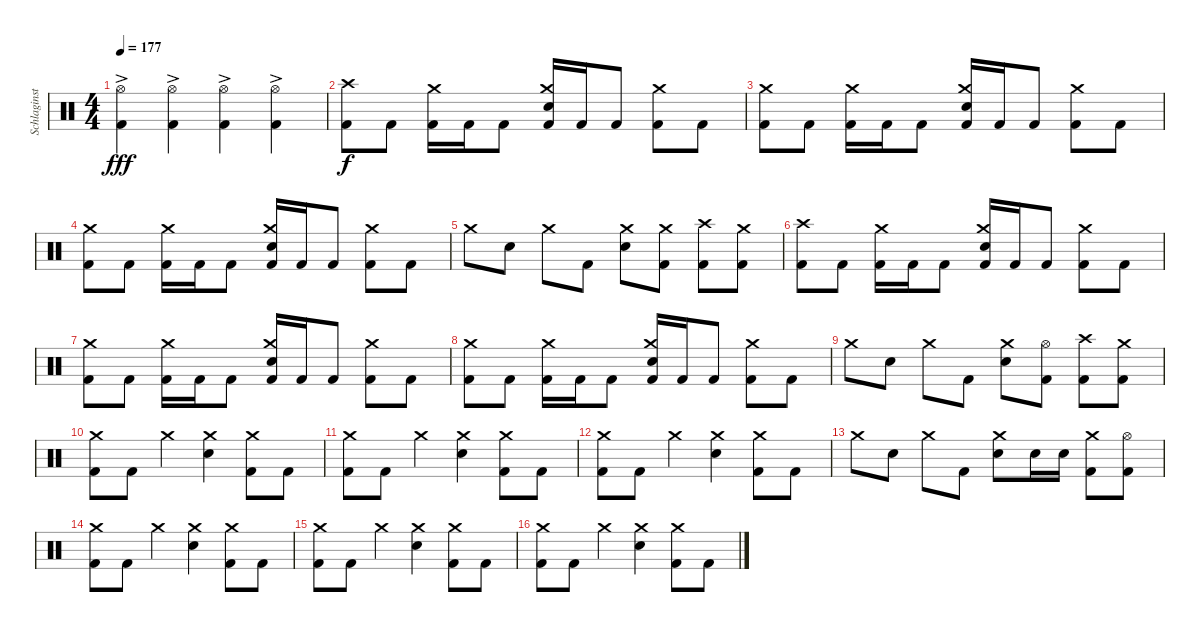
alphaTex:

\track ("Schlaginstrumente - Auswahl" "Schlaginst") {instrument percussion}
\staff {score}
\articulation defaults
\ts (4 4)
\tempo 177
\clef neutral
\ks c
("Hi-Hat (open)"{ac} "Kick (hit) 2"{ac}).4{dy fff} ("Hi-Hat (open)"{ac} "Kick (hit) 2"{ac}).4 ("Hi-Hat (open)"{ac} "Kick (hit) 2"{ac}).4 ("Hi-Hat (open)"{ac} "Kick (hit) 2"{ac}).4 |
("Crash high (hit)" "Kick (hit) 2").8{dy f} "Kick (hit) 2".8 ("Crash medium (hit)" "Kick (hit) 2").16 "Kick (hit) 2".16 "Kick (hit) 2".8 ("Crash medium (hit)" "Snare (hit) 2" "Kick (hit) 2").16 "Kick (hit) 2".16 "Kick (hit) 2".8 ("Crash medium (hit)" "Kick (hit) 2").8 "Kick (hit) 2".8 |
("Crash medium (hit)" "Kick (hit) 2").8 "Kick (hit) 2".8 ("Crash medium (hit)" "Kick (hit) 2").16 "Kick (hit) 2".16 "Kick (hit) 2".8 ("Crash medium (hit)" "Snare (hit) 2" "Kick (hit) 2").16 "Kick (hit) 2".16 "Kick (hit) 2".8 ("Crash medium (hit)" "Kick (hit) 2").8 "Kick (hit) 2".8 |
("Crash medium (hit)" "Kick (hit) 2").8 "Kick (hit) 2".8 ("Crash medium (hit)" "Kick (hit) 2").16 "Kick (hit) 2".16 "Kick (hit) 2".8 ("Crash medium (hit)" "Snare (hit) 2" "Kick (hit) 2").16 "Kick (hit) 2".16 "Kick (hit) 2".8 ("Crash medium (hit)" "Kick (hit) 2").8 "Kick (hit) 2".8 |
"Crash medium (hit)".8 "Snare (hit) 2".8 "Crash medium (hit)".8 "Kick (hit) 2".8 ("Crash medium (hit)" "Snare (hit) 2").8 ("Crash medium (hit)" "Kick (hit) 2").8 ("Crash high (hit)" "Kick (hit) 2").8 ("Crash medium (hit)" "Kick (hit) 2").8 |
("Crash high (hit)" "Kick (hit) 2").8 "Kick (hit) 2".8 ("Crash medium (hit)" "Kick (hit) 2").16 "Kick (hit) 2".16 "Kick (hit) 2".8 ("Crash medium (hit)" "Snare (hit) 2" "Kick (hit) 2").16 "Kick (hit) 2".16 "Kick (hit) 2".8 ("Crash medium (hit)" "Kick (hit) 2").8 "Kick (hit) 2".8 |
("Crash medium (hit)" "Kick (hit) 2").8 "Kick (hit) 2".8 ("Crash medium (hit)" "Kick (hit) 2").16 "Kick (hit) 2".16 "Kick (hit) 2".8 ("Crash medium (hit)" "Snare (hit) 2" "Kick (hit) 2").16 "Kick (hit) 2".16 "Kick (hit) 2".8 ("Crash medium (hit)" "Kick (hit) 2").8 "Kick (hit) 2".8 |
("Crash medium (hit)" "Kick (hit) 2").8 "Kick (hit) 2".8 ("Crash medium (hit)" "Kick (hit) 2").16 "Kick (hit) 2".16 "Kick (hit) 2".8 ("Crash medium (hit)" "Snare (hit) 2" "Kick (hit) 2").16 "Kick (hit) 2".16 "Kick (hit) 2".8 ("Crash medium (hit)" "Kick (hit) 2").8 "Kick (hit) 2".8 |
"Crash medium (hit)".8 "Snare (hit) 2".8 "Crash medium (hit)".8 "Kick (hit) 2".8 ("Crash medium (hit)" "Snare (hit) 2").8 ("Hi-Hat (open)" "Kick (hit) 2").8 ("Crash high (hit)" "Kick (hit) 2").8 ("Crash medium (hit)" "Kick (hit) 2").8 |
("Crash medium (hit)" "Kick (hit) 2").8 "Kick (hit) 2".8 "Crash medium (hit)".4 ("Crash medium (hit)" "Snare (hit) 2").4 ("Crash medium (hit)" "Kick (hit) 2").8 "Kick (hit) 2".8 |
("Crash medium (hit)" "Kick (hit) 2").8 "Kick (hit) 2".8 "Crash medium (hit)".4 ("Crash medium (hit)" "Snare (hit) 2").4 ("Crash medium (hit)" "Kick (hit) 2").8 "Kick (hit) 2".8 |
("Crash medium (hit)" "Kick (hit) 2").8 "Kick (hit) 2".8 "Crash medium (hit)".4 ("Crash medium (hit)" "Snare (hit) 2").4 ("Crash medium (hit)" "Kick (hit) 2").8 "Kick (hit) 2".8 |
"Crash medium (hit)".8 "Snare (hit) 2".8 "Crash medium (hit)".8 "Kick (hit) 2".8 ("Crash medium (hit)" "Snare (hit) 2").8 "Snare (hit) 2".16 "Snare (hit) 2".16 ("Crash medium (hit)" "Kick (hit) 2").8 ("Hi-Hat (open)" "Kick (hit) 2").8 |
("Crash medium (hit)" "Kick (hit) 2").8 "Kick (hit) 2".8 "Crash medium (hit)".4 ("Crash medium (hit)" "Snare (hit) 2").4 ("Crash medium (hit)" "Kick (hit) 2").8 "Kick (hit) 2".8 |
("Crash medium (hit)" "Kick (hit) 2").8 "Kick (hit) 2".8 "Crash medium (hit)".4 ("Crash medium (hit)" "Snare (hit) 2").4 ("Crash medium (hit)" "Kick (hit) 2").8 "Kick (hit) 2".8 |
("Crash medium (hit)" "Kick (hit) 2").8 "Kick (hit) 2".8 "Crash medium (hit)".4 ("Crash medium (hit)" "Snare (hit) 2").4 ("Crash medium (hit)" "Kick (hit) 2").8 "Kick (hit) 2".8
